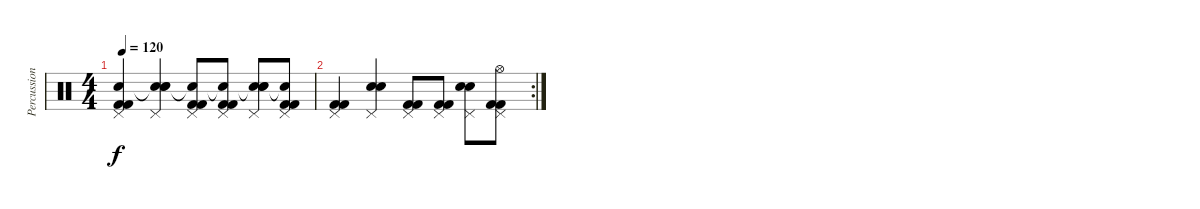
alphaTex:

\track ("Percussion" "Percussion") {instrument percussion}
\staff {score}
\articulation defaults
\ts (4 4)
\tempo 120
\clef neutral
\ks c
("Kick (hit) 2" "Kick (hit) 2" "Pedal Hi-Hat (hit)" "Snare (hit)"{t}).4{dy f} ("Snare (hit) 2" "Snare (hit) 2" "Pedal Hi-Hat (hit)" "Snare (hit)"{t}).4 ("Kick (hit) 2" "Kick (hit) 2" "Pedal Hi-Hat (hit)" "Snare (hit)"{t}).8 ("Kick (hit) 2" "Kick (hit) 2" "Pedal Hi-Hat (hit)" "Snare (hit)"{t}).8 ("Snare (hit) 2" "Snare (hit) 2" "Pedal Hi-Hat (hit)" "Snare (hit)"{t}).8 ("Kick (hit) 2" "Kick (hit) 2" "Pedal Hi-Hat (hit)" "Snare (hit)"{t}).8 |
\rc 2
("Kick (hit) 2" "Kick (hit) 2" "Pedal Hi-Hat (hit)").4 ("Snare (hit) 2" "Snare (hit) 2" "Pedal Hi-Hat (hit)").4 ("Kick (hit) 2" "Kick (hit) 2" "Pedal Hi-Hat (hit)").8 ("Kick (hit) 2" "Kick (hit) 2" "Pedal Hi-Hat (hit)").8 ("Snare (hit) 2" "Snare (hit) 2" "Pedal Hi-Hat (hit)").8 ("Kick (hit) 2" "Kick (hit) 2" "Hi-Hat (open)" "Pedal Hi-Hat (hit)").8
